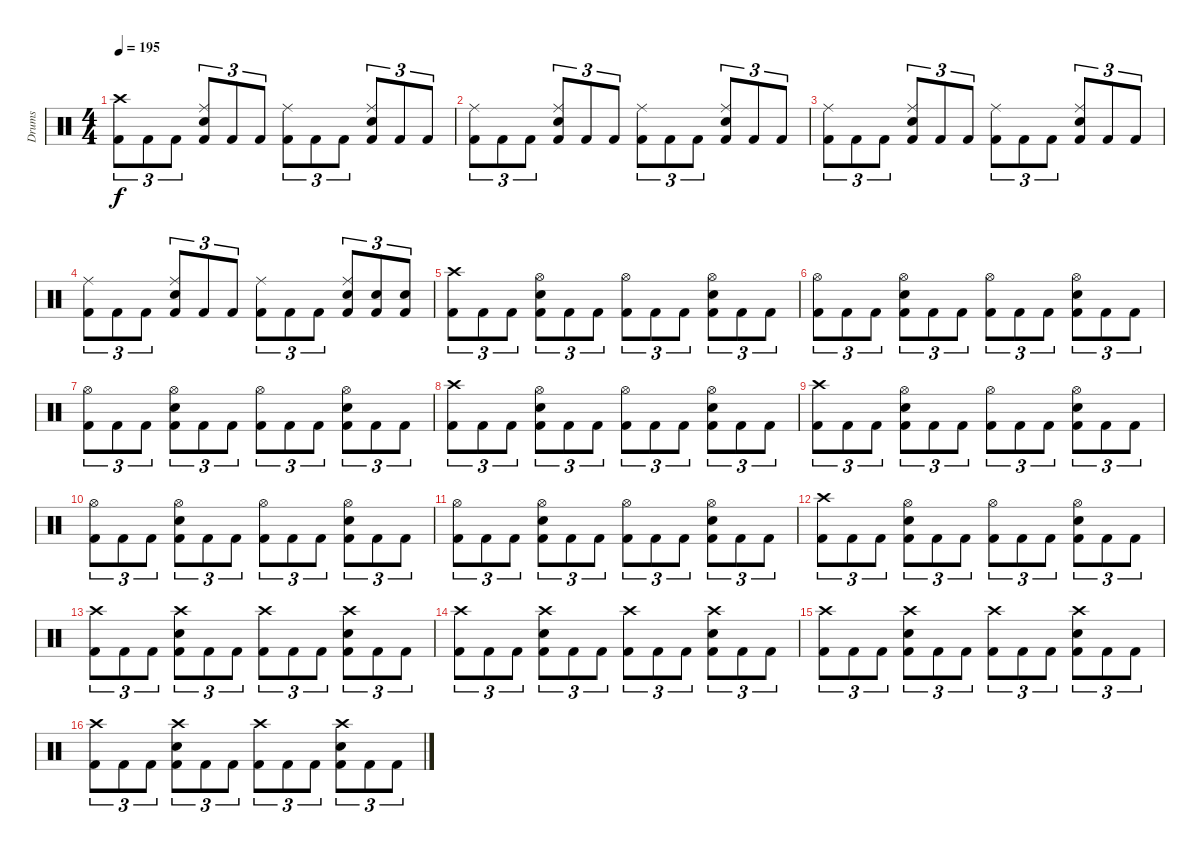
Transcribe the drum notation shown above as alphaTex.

\track ("Drums" "Drums") {instrument percussion}
\staff {score}
\articulation defaults
\ts (4 4)
\tempo 195
\clef neutral
\ks c
("Crash high (hit)" "Kick (hit) 2").8{tu (3 2) dy f} "Kick (hit) 2".8{tu (3 2)} "Kick (hit) 2".8{tu (3 2)} ("Ride (middle)" "Snare (hit) 2" "Kick (hit) 2").8{tu (3 2)} "Kick (hit) 2".8{tu (3 2)} "Kick (hit) 2".8{tu (3 2)} ("Ride (middle)" "Kick (hit) 2").8{tu (3 2)} "Kick (hit) 2".8{tu (3 2)} "Kick (hit) 2".8{tu (3 2)} ("Ride (middle)" "Snare (hit) 2" "Kick (hit) 2").8{tu (3 2)} "Kick (hit) 2".8{tu (3 2)} "Kick (hit) 2".8{tu (3 2)} |
("Ride (middle)" "Kick (hit) 2").8{tu (3 2)} "Kick (hit) 2".8{tu (3 2)} "Kick (hit) 2".8{tu (3 2)} ("Ride (middle)" "Snare (hit) 2" "Kick (hit) 2").8{tu (3 2)} "Kick (hit) 2".8{tu (3 2)} "Kick (hit) 2".8{tu (3 2)} ("Ride (middle)" "Kick (hit) 2").8{tu (3 2)} "Kick (hit) 2".8{tu (3 2)} "Kick (hit) 2".8{tu (3 2)} ("Ride (middle)" "Snare (hit) 2" "Kick (hit) 2").8{tu (3 2)} "Kick (hit) 2".8{tu (3 2)} "Kick (hit) 2".8{tu (3 2)} |
("Ride (middle)" "Kick (hit) 2").8{tu (3 2)} "Kick (hit) 2".8{tu (3 2)} "Kick (hit) 2".8{tu (3 2)} ("Ride (middle)" "Snare (hit) 2" "Kick (hit) 2").8{tu (3 2)} "Kick (hit) 2".8{tu (3 2)} "Kick (hit) 2".8{tu (3 2)} ("Ride (middle)" "Kick (hit) 2").8{tu (3 2)} "Kick (hit) 2".8{tu (3 2)} "Kick (hit) 2".8{tu (3 2)} ("Ride (middle)" "Snare (hit) 2" "Kick (hit) 2").8{tu (3 2)} "Kick (hit) 2".8{tu (3 2)} "Kick (hit) 2".8{tu (3 2)} |
("Ride (middle)" "Kick (hit) 2").8{tu (3 2)} "Kick (hit) 2".8{tu (3 2)} "Kick (hit) 2".8{tu (3 2)} ("Ride (middle)" "Snare (hit) 2" "Kick (hit) 2").8{tu (3 2)} "Kick (hit) 2".8{tu (3 2)} "Kick (hit) 2".8{tu (3 2)} ("Ride (middle)" "Kick (hit) 2").8{tu (3 2)} "Kick (hit) 2".8{tu (3 2)} "Kick (hit) 2".8{tu (3 2)} ("Ride (middle)" "Snare (hit) 2" "Kick (hit) 2").8{tu (3 2)} ("Snare (hit) 2" "Kick (hit) 2").8{tu (3 2)} ("Snare (hit) 2" "Kick (hit) 2").8{tu (3 2)} |
("Crash high (hit)" "Kick (hit) 2").8{tu (3 2)} "Kick (hit) 2".8{tu (3 2)} "Kick (hit) 2".8{tu (3 2)} ("Hi-Hat (open)" "Snare (hit) 2" "Kick (hit) 2").8{tu (3 2)} "Kick (hit) 2".8{tu (3 2)} "Kick (hit) 2".8{tu (3 2)} ("Hi-Hat (open)" "Kick (hit) 2").8{tu (3 2)} "Kick (hit) 2".8{tu (3 2)} "Kick (hit) 2".8{tu (3 2)} ("Hi-Hat (open)" "Snare (hit) 2" "Kick (hit) 2").8{tu (3 2)} "Kick (hit) 2".8{tu (3 2)} "Kick (hit) 2".8{tu (3 2)} |
("Hi-Hat (open)" "Kick (hit) 2").8{tu (3 2)} "Kick (hit) 2".8{tu (3 2)} "Kick (hit) 2".8{tu (3 2)} ("Hi-Hat (open)" "Snare (hit) 2" "Kick (hit) 2").8{tu (3 2)} "Kick (hit) 2".8{tu (3 2)} "Kick (hit) 2".8{tu (3 2)} ("Hi-Hat (open)" "Kick (hit) 2").8{tu (3 2)} "Kick (hit) 2".8{tu (3 2)} "Kick (hit) 2".8{tu (3 2)} ("Hi-Hat (open)" "Snare (hit) 2" "Kick (hit) 2").8{tu (3 2)} "Kick (hit) 2".8{tu (3 2)} "Kick (hit) 2".8{tu (3 2)} |
("Hi-Hat (open)" "Kick (hit) 2").8{tu (3 2)} "Kick (hit) 2".8{tu (3 2)} "Kick (hit) 2".8{tu (3 2)} ("Hi-Hat (open)" "Snare (hit) 2" "Kick (hit) 2").8{tu (3 2)} "Kick (hit) 2".8{tu (3 2)} "Kick (hit) 2".8{tu (3 2)} ("Hi-Hat (open)" "Kick (hit) 2").8{tu (3 2)} "Kick (hit) 2".8{tu (3 2)} "Kick (hit) 2".8{tu (3 2)} ("Hi-Hat (open)" "Snare (hit) 2" "Kick (hit) 2").8{tu (3 2)} "Kick (hit) 2".8{tu (3 2)} "Kick (hit) 2".8{tu (3 2)} |
("Crash high (hit)" "Kick (hit) 2").8{tu (3 2)} "Kick (hit) 2".8{tu (3 2)} "Kick (hit) 2".8{tu (3 2)} ("Hi-Hat (open)" "Snare (hit) 2" "Kick (hit) 2").8{tu (3 2)} "Kick (hit) 2".8{tu (3 2)} "Kick (hit) 2".8{tu (3 2)} ("Hi-Hat (open)" "Kick (hit) 2").8{tu (3 2)} "Kick (hit) 2".8{tu (3 2)} "Kick (hit) 2".8{tu (3 2)} ("Hi-Hat (open)" "Snare (hit) 2" "Kick (hit) 2").8{tu (3 2)} "Kick (hit) 2".8{tu (3 2)} "Kick (hit) 2".8{tu (3 2)} |
("Crash high (hit)" "Kick (hit) 2").8{tu (3 2)} "Kick (hit) 2".8{tu (3 2)} "Kick (hit) 2".8{tu (3 2)} ("Hi-Hat (open)" "Snare (hit) 2" "Kick (hit) 2").8{tu (3 2)} "Kick (hit) 2".8{tu (3 2)} "Kick (hit) 2".8{tu (3 2)} ("Hi-Hat (open)" "Kick (hit) 2").8{tu (3 2)} "Kick (hit) 2".8{tu (3 2)} "Kick (hit) 2".8{tu (3 2)} ("Hi-Hat (open)" "Snare (hit) 2" "Kick (hit) 2").8{tu (3 2)} "Kick (hit) 2".8{tu (3 2)} "Kick (hit) 2".8{tu (3 2)} |
("Hi-Hat (open)" "Kick (hit) 2").8{tu (3 2)} "Kick (hit) 2".8{tu (3 2)} "Kick (hit) 2".8{tu (3 2)} ("Hi-Hat (open)" "Snare (hit) 2" "Kick (hit) 2").8{tu (3 2)} "Kick (hit) 2".8{tu (3 2)} "Kick (hit) 2".8{tu (3 2)} ("Hi-Hat (open)" "Kick (hit) 2").8{tu (3 2)} "Kick (hit) 2".8{tu (3 2)} "Kick (hit) 2".8{tu (3 2)} ("Hi-Hat (open)" "Snare (hit) 2" "Kick (hit) 2").8{tu (3 2)} "Kick (hit) 2".8{tu (3 2)} "Kick (hit) 2".8{tu (3 2)} |
("Hi-Hat (open)" "Kick (hit) 2").8{tu (3 2)} "Kick (hit) 2".8{tu (3 2)} "Kick (hit) 2".8{tu (3 2)} ("Hi-Hat (open)" "Snare (hit) 2" "Kick (hit) 2").8{tu (3 2)} "Kick (hit) 2".8{tu (3 2)} "Kick (hit) 2".8{tu (3 2)} ("Hi-Hat (open)" "Kick (hit) 2").8{tu (3 2)} "Kick (hit) 2".8{tu (3 2)} "Kick (hit) 2".8{tu (3 2)} ("Hi-Hat (open)" "Snare (hit) 2" "Kick (hit) 2").8{tu (3 2)} "Kick (hit) 2".8{tu (3 2)} "Kick (hit) 2".8{tu (3 2)} |
("Crash high (hit)" "Kick (hit) 2").8{tu (3 2)} "Kick (hit) 2".8{tu (3 2)} "Kick (hit) 2".8{tu (3 2)} ("Hi-Hat (open)" "Snare (hit) 2" "Kick (hit) 2").8{tu (3 2)} "Kick (hit) 2".8{tu (3 2)} "Kick (hit) 2".8{tu (3 2)} ("Hi-Hat (open)" "Kick (hit) 2").8{tu (3 2)} "Kick (hit) 2".8{tu (3 2)} "Kick (hit) 2".8{tu (3 2)} ("Hi-Hat (open)" "Snare (hit) 2" "Kick (hit) 2").8{tu (3 2)} "Kick (hit) 2".8{tu (3 2)} "Kick (hit) 2".8{tu (3 2)} |
("Crash high (hit)" "Kick (hit) 2").8{tu (3 2)} "Kick (hit) 2".8{tu (3 2)} "Kick (hit) 2".8{tu (3 2)} ("Crash high (hit)" "Snare (hit) 2" "Kick (hit) 2").8{tu (3 2)} "Kick (hit) 2".8{tu (3 2)} "Kick (hit) 2".8{tu (3 2)} ("Crash high (hit)" "Kick (hit) 2").8{tu (3 2)} "Kick (hit) 2".8{tu (3 2)} "Kick (hit) 2".8{tu (3 2)} ("Crash high (hit)" "Snare (hit) 2" "Kick (hit) 2").8{tu (3 2)} "Kick (hit) 2".8{tu (3 2)} "Kick (hit) 2".8{tu (3 2)} |
("Crash high (hit)" "Kick (hit) 2").8{tu (3 2)} "Kick (hit) 2".8{tu (3 2)} "Kick (hit) 2".8{tu (3 2)} ("Crash high (hit)" "Snare (hit) 2" "Kick (hit) 2").8{tu (3 2)} "Kick (hit) 2".8{tu (3 2)} "Kick (hit) 2".8{tu (3 2)} ("Crash high (hit)" "Kick (hit) 2").8{tu (3 2)} "Kick (hit) 2".8{tu (3 2)} "Kick (hit) 2".8{tu (3 2)} ("Crash high (hit)" "Snare (hit) 2" "Kick (hit) 2").8{tu (3 2)} "Kick (hit) 2".8{tu (3 2)} "Kick (hit) 2".8{tu (3 2)} |
("Crash high (hit)" "Kick (hit) 2").8{tu (3 2)} "Kick (hit) 2".8{tu (3 2)} "Kick (hit) 2".8{tu (3 2)} ("Crash high (hit)" "Snare (hit) 2" "Kick (hit) 2").8{tu (3 2)} "Kick (hit) 2".8{tu (3 2)} "Kick (hit) 2".8{tu (3 2)} ("Crash high (hit)" "Kick (hit) 2").8{tu (3 2)} "Kick (hit) 2".8{tu (3 2)} "Kick (hit) 2".8{tu (3 2)} ("Crash high (hit)" "Snare (hit) 2" "Kick (hit) 2").8{tu (3 2)} "Kick (hit) 2".8{tu (3 2)} "Kick (hit) 2".8{tu (3 2)} |
("Crash high (hit)" "Kick (hit) 2").8{tu (3 2)} "Kick (hit) 2".8{tu (3 2)} "Kick (hit) 2".8{tu (3 2)} ("Crash high (hit)" "Snare (hit) 2" "Kick (hit) 2").8{tu (3 2)} "Kick (hit) 2".8{tu (3 2)} "Kick (hit) 2".8{tu (3 2)} ("Crash high (hit)" "Kick (hit) 2").8{tu (3 2)} "Kick (hit) 2".8{tu (3 2)} "Kick (hit) 2".8{tu (3 2)} ("Crash high (hit)" "Snare (hit) 2" "Kick (hit) 2").8{tu (3 2)} "Kick (hit) 2".8{tu (3 2)} "Kick (hit) 2".8{tu (3 2)}
